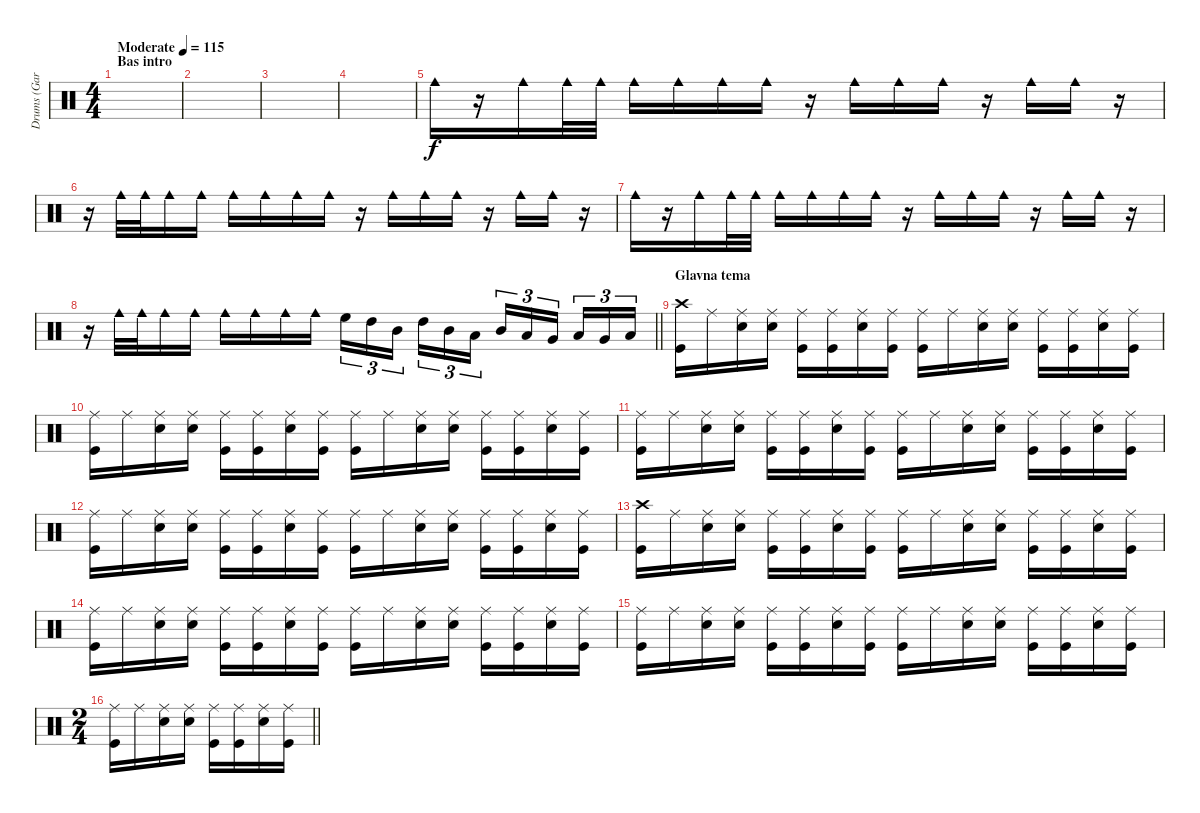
\track ("Drums (Garabet Tavitjan)" "Drums (Gar") {instrument percussion}
\staff {score}
\articulation defaults
\ts (4 4)
\section ("" "Bas intro")
\tempo (115 "Moderate")
\clef neutral
\ks c
|
|
|
|
"Cowbell medium (hit)".16 r.16 "Cowbell medium (hit)".16 "Cowbell medium (hit)".32 "Cowbell medium (hit)".32 "Cowbell medium (hit)".16 "Cowbell medium (hit)".16 "Cowbell medium (hit)".16 "Cowbell medium (hit)".16 r.16 "Cowbell medium (hit)".16 "Cowbell medium (hit)".16 "Cowbell medium (hit)".16 r.16 "Cowbell medium (hit)".16 "Cowbell medium (hit)".16 r.16 |
r.16 "Cowbell medium (hit)".32 "Cowbell medium (hit)".32 "Cowbell medium (hit)".16 "Cowbell medium (hit)".16 "Cowbell medium (hit)".16 "Cowbell medium (hit)".16 "Cowbell medium (hit)".16 "Cowbell medium (hit)".16 r.16 "Cowbell medium (hit)".16 "Cowbell medium (hit)".16 "Cowbell medium (hit)".16 r.16 "Cowbell medium (hit)".16 "Cowbell medium (hit)".16 r.16 |
"Cowbell medium (hit)".16 r.16 "Cowbell medium (hit)".16 "Cowbell medium (hit)".32 "Cowbell medium (hit)".32 "Cowbell medium (hit)".16 "Cowbell medium (hit)".16 "Cowbell medium (hit)".16 "Cowbell medium (hit)".16 r.16 "Cowbell medium (hit)".16 "Cowbell medium (hit)".16 "Cowbell medium (hit)".16 r.16 "Cowbell medium (hit)".16 "Cowbell medium (hit)".16 r.16 |
\barLineRight lightlight
r.16 "Cowbell medium (hit)".32 "Cowbell medium (hit)".32 "Cowbell medium (hit)".16 "Cowbell medium (hit)".16 "Cowbell medium (hit)".16 "Cowbell medium (hit)".16 "Cowbell medium (hit)".16 "Cowbell medium (hit)".16 "High Floor Tom (hit)".16{tu (3 2)} "High Tom (hit)".16{tu (3 2)} "Mid Tom (hit)".16{tu (3 2) beam splitsecondary} "High Tom (hit)".16{tu (3 2)} "Mid Tom (hit)".16{tu (3 2)} "Low Tom (hit)".16{tu (3 2)} "Mid Tom (hit)".16{tu (3 2)} "Low Tom (hit)".16{tu (3 2)} "Very Low Tom (hit)".16{tu (3 2) beam splitsecondary} "Low Tom (hit)".16{tu (3 2)} "Very Low Tom (hit)".16{tu (3 2)} "Low Floor Tom (hit)".16{tu (3 2)} |
\section ("" "Glavna tema")
("Crash high (hit)" "Kick (hit)").16 "Ride (middle)".16 ("Ride (middle)" "Electric Snare (hit)").16 ("Ride (middle)" "Electric Snare (hit)").16 ("Ride (middle)" "Kick (hit)").16 ("Ride (middle)" "Kick (hit)").16 ("Ride (middle)" "Electric Snare (hit)").16 ("Ride (middle)" "Kick (hit)").16 ("Ride (middle)" "Kick (hit)").16 "Ride (middle)".16 ("Ride (middle)" "Electric Snare (hit)").16 ("Ride (middle)" "Electric Snare (hit)").16 ("Ride (middle)" "Kick (hit)").16 ("Ride (middle)" "Kick (hit)").16 ("Ride (middle)" "Electric Snare (hit)").16 ("Ride (middle)" "Kick (hit)").16 |
("Ride (middle)" "Kick (hit)").16 "Ride (middle)".16 ("Ride (middle)" "Electric Snare (hit)").16 ("Ride (middle)" "Electric Snare (hit)").16 ("Ride (middle)" "Kick (hit)").16 ("Ride (middle)" "Kick (hit)").16 ("Ride (middle)" "Electric Snare (hit)").16 ("Ride (middle)" "Kick (hit)").16 ("Ride (middle)" "Kick (hit)").16 "Ride (middle)".16 ("Ride (middle)" "Electric Snare (hit)").16 ("Ride (middle)" "Electric Snare (hit)").16 ("Ride (middle)" "Kick (hit)").16 ("Ride (middle)" "Kick (hit)").16 ("Ride (middle)" "Electric Snare (hit)").16 ("Ride (middle)" "Kick (hit)").16 |
("Ride (middle)" "Kick (hit)").16 "Ride (middle)".16 ("Ride (middle)" "Electric Snare (hit)").16 ("Ride (middle)" "Electric Snare (hit)").16 ("Ride (middle)" "Kick (hit)").16 ("Ride (middle)" "Kick (hit)").16 ("Ride (middle)" "Electric Snare (hit)").16 ("Ride (middle)" "Kick (hit)").16 ("Ride (middle)" "Kick (hit)").16 "Ride (middle)".16 ("Ride (middle)" "Electric Snare (hit)").16 ("Ride (middle)" "Electric Snare (hit)").16 ("Ride (middle)" "Kick (hit)").16 ("Ride (middle)" "Kick (hit)").16 ("Ride (middle)" "Electric Snare (hit)").16 ("Ride (middle)" "Kick (hit)").16 |
("Ride (middle)" "Kick (hit)").16 "Ride (middle)".16 ("Ride (middle)" "Electric Snare (hit)").16 ("Ride (middle)" "Electric Snare (hit)").16 ("Ride (middle)" "Kick (hit)").16 ("Ride (middle)" "Kick (hit)").16 ("Ride (middle)" "Electric Snare (hit)").16 ("Ride (middle)" "Kick (hit)").16 ("Ride (middle)" "Kick (hit)").16 "Ride (middle)".16 ("Ride (middle)" "Electric Snare (hit)").16 ("Ride (middle)" "Electric Snare (hit)").16 ("Ride (middle)" "Kick (hit)").16 ("Ride (middle)" "Kick (hit)").16 ("Ride (middle)" "Electric Snare (hit)").16 ("Ride (middle)" "Kick (hit)").16 |
("Crash high (hit)" "Kick (hit)").16 "Ride (middle)".16 ("Ride (middle)" "Electric Snare (hit)").16 ("Ride (middle)" "Electric Snare (hit)").16 ("Ride (middle)" "Kick (hit)").16 ("Ride (middle)" "Kick (hit)").16 ("Ride (middle)" "Electric Snare (hit)").16 ("Ride (middle)" "Kick (hit)").16 ("Ride (middle)" "Kick (hit)").16 "Ride (middle)".16 ("Ride (middle)" "Electric Snare (hit)").16 ("Ride (middle)" "Electric Snare (hit)").16 ("Ride (middle)" "Kick (hit)").16 ("Ride (middle)" "Kick (hit)").16 ("Ride (middle)" "Electric Snare (hit)").16 ("Ride (middle)" "Kick (hit)").16 |
("Ride (middle)" "Kick (hit)").16 "Ride (middle)".16 ("Ride (middle)" "Electric Snare (hit)").16 ("Ride (middle)" "Electric Snare (hit)").16 ("Ride (middle)" "Kick (hit)").16 ("Ride (middle)" "Kick (hit)").16 ("Ride (middle)" "Electric Snare (hit)").16 ("Ride (middle)" "Kick (hit)").16 ("Ride (middle)" "Kick (hit)").16 "Ride (middle)".16 ("Ride (middle)" "Electric Snare (hit)").16 ("Ride (middle)" "Electric Snare (hit)").16 ("Ride (middle)" "Kick (hit)").16 ("Ride (middle)" "Kick (hit)").16 ("Ride (middle)" "Electric Snare (hit)").16 ("Ride (middle)" "Kick (hit)").16 |
("Ride (middle)" "Kick (hit)").16 "Ride (middle)".16 ("Ride (middle)" "Electric Snare (hit)").16 ("Ride (middle)" "Electric Snare (hit)").16 ("Ride (middle)" "Kick (hit)").16 ("Ride (middle)" "Kick (hit)").16 ("Ride (middle)" "Electric Snare (hit)").16 ("Ride (middle)" "Kick (hit)").16 ("Ride (middle)" "Kick (hit)").16 "Ride (middle)".16 ("Ride (middle)" "Electric Snare (hit)").16 ("Ride (middle)" "Electric Snare (hit)").16 ("Ride (middle)" "Kick (hit)").16 ("Ride (middle)" "Kick (hit)").16 ("Ride (middle)" "Electric Snare (hit)").16 ("Ride (middle)" "Kick (hit)").16 |
\ts (2 4)
\barLineRight lightlight
("Ride (middle)" "Kick (hit)").16 "Ride (middle)".16 ("Ride (middle)" "Electric Snare (hit)").16 ("Ride (middle)" "Electric Snare (hit)").16 ("Ride (middle)" "Kick (hit)").16 ("Ride (middle)" "Kick (hit)").16 ("Ride (middle)" "Electric Snare (hit)").16 ("Ride (middle)" "Kick (hit)").16
